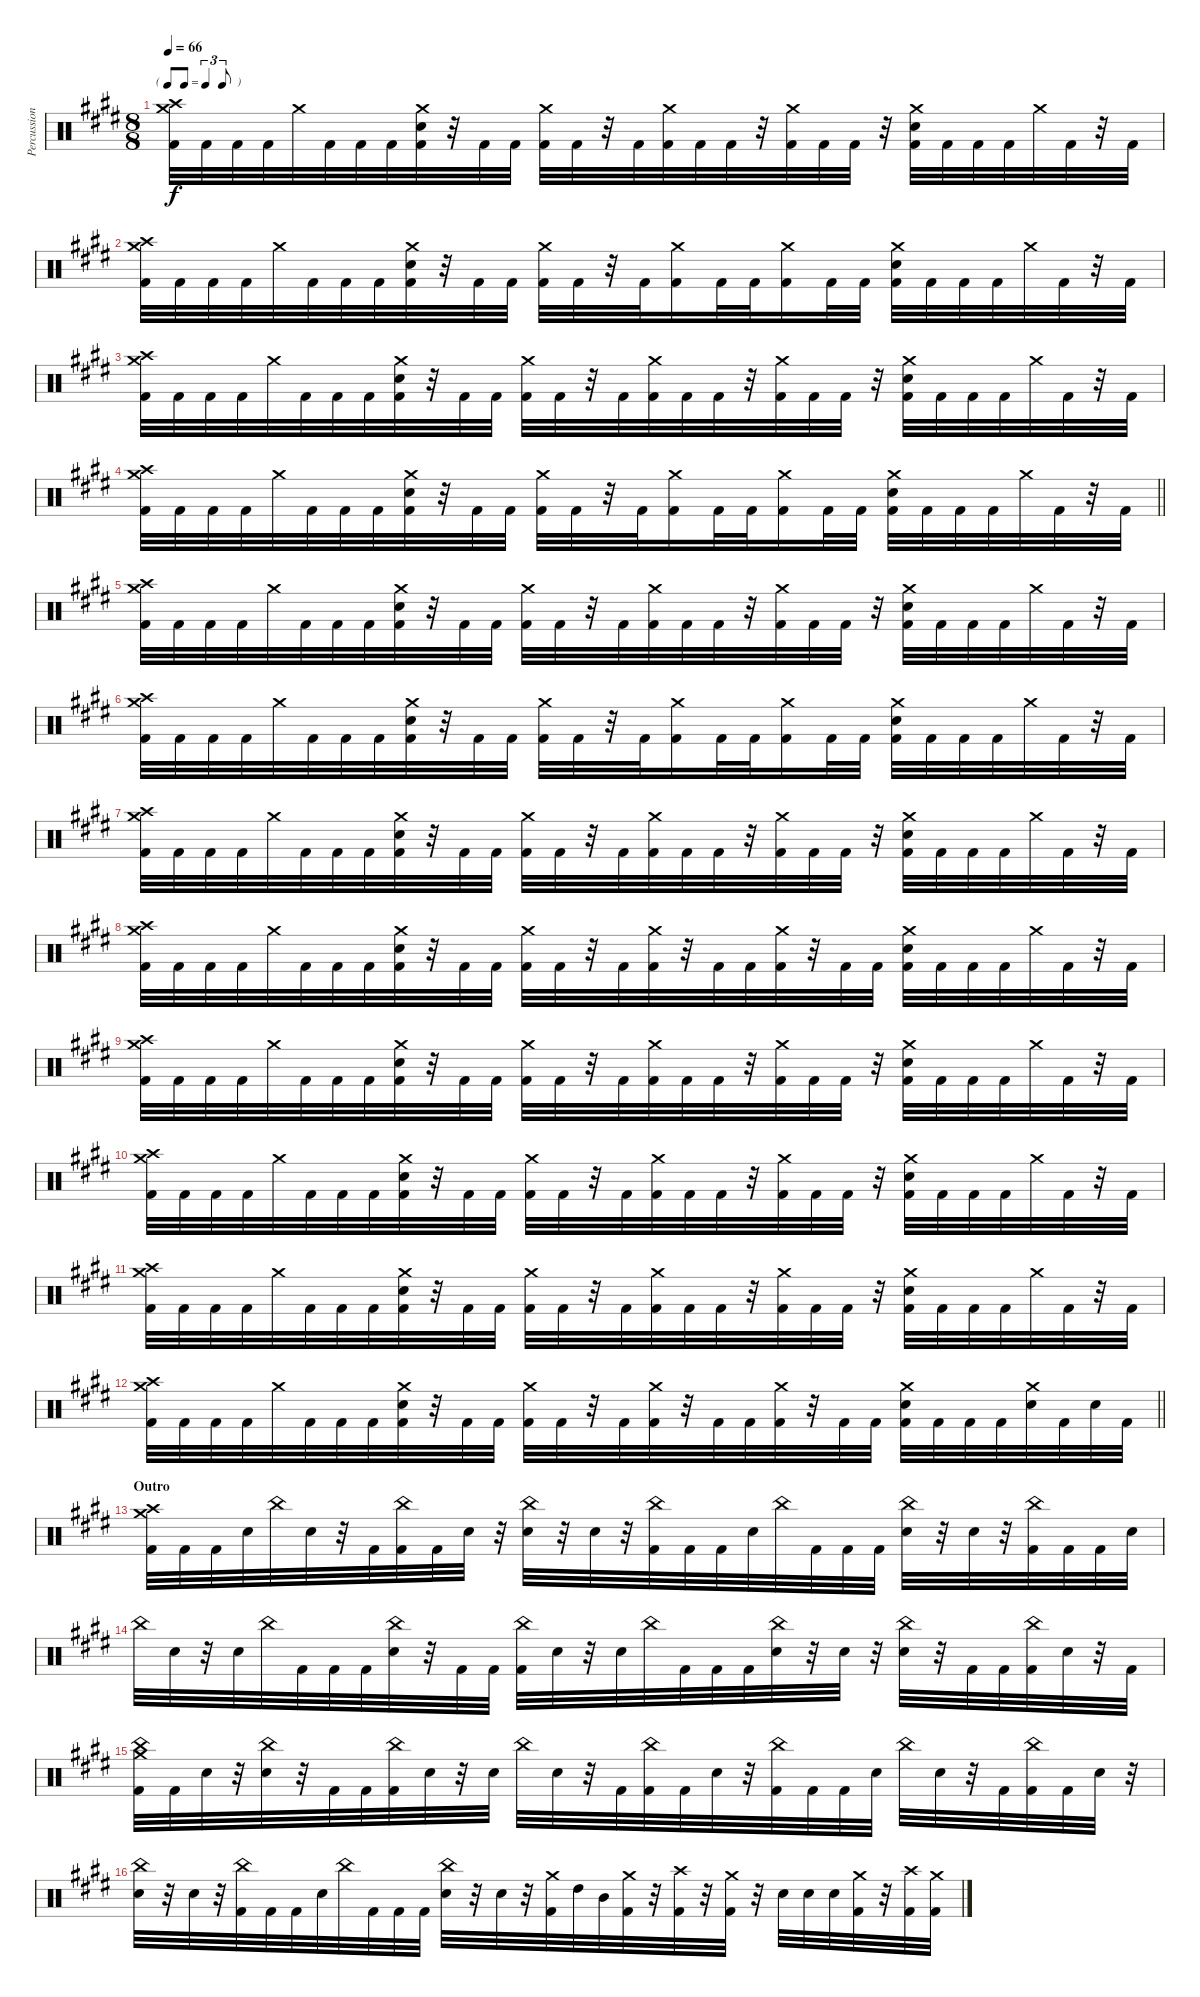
\track ("Percussion" "Percussion") {instrument percussion}
\staff {score}
\articulation defaults
\ts (8 8)
\tf triplet8th
\tempo 66
\clef neutral
\ks c#minor
("Crash medium (hit)" "Crash high (hit)" "Kick (hit) 2").32{dy f} "Kick (hit) 2".32 "Kick (hit) 2".32 "Kick (hit) 2".32 "Crash medium (hit)".32 "Kick (hit) 2".32 "Kick (hit) 2".32 "Kick (hit) 2".32 ("Crash medium (hit)" "Electric Snare (hit)" "Kick (hit) 2").32 r.32 "Kick (hit) 2".32 "Kick (hit) 2".32 ("Crash medium (hit)" "Kick (hit) 2").32 "Kick (hit) 2".32 r.32 "Kick (hit) 2".32 ("Crash medium (hit)" "Kick (hit) 2").32 "Kick (hit) 2".32 "Kick (hit) 2".32 r.32 ("Crash medium (hit)" "Kick (hit) 2").32 "Kick (hit) 2".32 "Kick (hit) 2".32 r.32 ("Crash medium (hit)" "Electric Snare (hit)" "Kick (hit) 2").32 "Kick (hit) 2".32 "Kick (hit) 2".32 "Kick (hit) 2".32 "Crash medium (hit)".32 "Kick (hit) 2".32 r.32 "Kick (hit) 2".32 |
("Crash medium (hit)" "Crash high (hit)" "Kick (hit) 2").32 "Kick (hit) 2".32 "Kick (hit) 2".32 "Kick (hit) 2".32 "Crash medium (hit)".32 "Kick (hit) 2".32 "Kick (hit) 2".32 "Kick (hit) 2".32 ("Crash medium (hit)" "Electric Snare (hit)" "Kick (hit) 2").32 r.32 "Kick (hit) 2".32 "Kick (hit) 2".32 ("Crash medium (hit)" "Kick (hit) 2").32 "Kick (hit) 2".32 r.32 "Kick (hit) 2".32 ("Crash medium (hit)" "Kick (hit) 2").16 "Kick (hit) 2".32 "Kick (hit) 2".32 ("Crash medium (hit)" "Kick (hit) 2").16 "Kick (hit) 2".32 "Kick (hit) 2".32 ("Crash medium (hit)" "Electric Snare (hit)" "Kick (hit) 2").32 "Kick (hit) 2".32 "Kick (hit) 2".32 "Kick (hit) 2".32 "Crash medium (hit)".32 "Kick (hit) 2".32 r.32 "Kick (hit) 2".32 |
("Crash medium (hit)" "Crash high (hit)" "Kick (hit) 2").32 "Kick (hit) 2".32 "Kick (hit) 2".32 "Kick (hit) 2".32 "Crash medium (hit)".32 "Kick (hit) 2".32 "Kick (hit) 2".32 "Kick (hit) 2".32 ("Crash medium (hit)" "Electric Snare (hit)" "Kick (hit) 2").32 r.32 "Kick (hit) 2".32 "Kick (hit) 2".32 ("Crash medium (hit)" "Kick (hit) 2").32 "Kick (hit) 2".32 r.32 "Kick (hit) 2".32 ("Crash medium (hit)" "Kick (hit) 2").32 "Kick (hit) 2".32 "Kick (hit) 2".32 r.32 ("Crash medium (hit)" "Kick (hit) 2").32 "Kick (hit) 2".32 "Kick (hit) 2".32 r.32 ("Crash medium (hit)" "Electric Snare (hit)" "Kick (hit) 2").32 "Kick (hit) 2".32 "Kick (hit) 2".32 "Kick (hit) 2".32 "Crash medium (hit)".32 "Kick (hit) 2".32 r.32 "Kick (hit) 2".32 |
\barLineRight lightlight
("Crash medium (hit)" "Crash high (hit)" "Kick (hit) 2").32 "Kick (hit) 2".32 "Kick (hit) 2".32 "Kick (hit) 2".32 "Crash medium (hit)".32 "Kick (hit) 2".32 "Kick (hit) 2".32 "Kick (hit) 2".32 ("Crash medium (hit)" "Electric Snare (hit)" "Kick (hit) 2").32 r.32 "Kick (hit) 2".32 "Kick (hit) 2".32 ("Crash medium (hit)" "Kick (hit) 2").32 "Kick (hit) 2".32 r.32 "Kick (hit) 2".32 ("Crash medium (hit)" "Kick (hit) 2").16 "Kick (hit) 2".32 "Kick (hit) 2".32 ("Crash medium (hit)" "Kick (hit) 2").16 "Kick (hit) 2".32 "Kick (hit) 2".32 ("Crash medium (hit)" "Electric Snare (hit)" "Kick (hit) 2").32 "Kick (hit) 2".32 "Kick (hit) 2".32 "Kick (hit) 2".32 "Crash medium (hit)".32 "Kick (hit) 2".32 r.32 "Kick (hit) 2".32 |
("Crash medium (hit)" "Crash high (hit)" "Kick (hit) 2").32 "Kick (hit) 2".32 "Kick (hit) 2".32 "Kick (hit) 2".32 "Crash medium (hit)".32 "Kick (hit) 2".32 "Kick (hit) 2".32 "Kick (hit) 2".32 ("Crash medium (hit)" "Electric Snare (hit)" "Kick (hit) 2").32 r.32 "Kick (hit) 2".32 "Kick (hit) 2".32 ("Crash medium (hit)" "Kick (hit) 2").32 "Kick (hit) 2".32 r.32 "Kick (hit) 2".32 ("Crash medium (hit)" "Kick (hit) 2").32 "Kick (hit) 2".32 "Kick (hit) 2".32 r.32 ("Crash medium (hit)" "Kick (hit) 2").32 "Kick (hit) 2".32 "Kick (hit) 2".32 r.32 ("Crash medium (hit)" "Electric Snare (hit)" "Kick (hit) 2").32 "Kick (hit) 2".32 "Kick (hit) 2".32 "Kick (hit) 2".32 "Crash medium (hit)".32 "Kick (hit) 2".32 r.32 "Kick (hit) 2".32 |
("Crash medium (hit)" "Crash high (hit)" "Kick (hit) 2").32 "Kick (hit) 2".32 "Kick (hit) 2".32 "Kick (hit) 2".32 "Crash medium (hit)".32 "Kick (hit) 2".32 "Kick (hit) 2".32 "Kick (hit) 2".32 ("Crash medium (hit)" "Electric Snare (hit)" "Kick (hit) 2").32 r.32 "Kick (hit) 2".32 "Kick (hit) 2".32 ("Crash medium (hit)" "Kick (hit) 2").32 "Kick (hit) 2".32 r.32 "Kick (hit) 2".32 ("Crash medium (hit)" "Kick (hit) 2").16 "Kick (hit) 2".32 "Kick (hit) 2".32 ("Crash medium (hit)" "Kick (hit) 2").16 "Kick (hit) 2".32 "Kick (hit) 2".32 ("Crash medium (hit)" "Electric Snare (hit)" "Kick (hit) 2").32 "Kick (hit) 2".32 "Kick (hit) 2".32 "Kick (hit) 2".32 "Crash medium (hit)".32 "Kick (hit) 2".32 r.32 "Kick (hit) 2".32 |
("Crash medium (hit)" "Crash high (hit)" "Kick (hit) 2").32 "Kick (hit) 2".32 "Kick (hit) 2".32 "Kick (hit) 2".32 "Crash medium (hit)".32 "Kick (hit) 2".32 "Kick (hit) 2".32 "Kick (hit) 2".32 ("Crash medium (hit)" "Electric Snare (hit)" "Kick (hit) 2").32 r.32 "Kick (hit) 2".32 "Kick (hit) 2".32 ("Crash medium (hit)" "Kick (hit) 2").32 "Kick (hit) 2".32 r.32 "Kick (hit) 2".32 ("Crash medium (hit)" "Kick (hit) 2").32 "Kick (hit) 2".32 "Kick (hit) 2".32 r.32 ("Crash medium (hit)" "Kick (hit) 2").32 "Kick (hit) 2".32 "Kick (hit) 2".32 r.32 ("Crash medium (hit)" "Electric Snare (hit)" "Kick (hit) 2").32 "Kick (hit) 2".32 "Kick (hit) 2".32 "Kick (hit) 2".32 "Crash medium (hit)".32 "Kick (hit) 2".32 r.32 "Kick (hit) 2".32 |
("Crash medium (hit)" "Crash high (hit)" "Kick (hit) 2").32 "Kick (hit) 2".32 "Kick (hit) 2".32 "Kick (hit) 2".32 "Crash medium (hit)".32 "Kick (hit) 2".32 "Kick (hit) 2".32 "Kick (hit) 2".32 ("Crash medium (hit)" "Electric Snare (hit)" "Kick (hit) 2").32 r.32 "Kick (hit) 2".32 "Kick (hit) 2".32 ("Crash medium (hit)" "Kick (hit) 2").32 "Kick (hit) 2".32 r.32 "Kick (hit) 2".32 ("Crash medium (hit)" "Kick (hit) 2").32 r.32 "Kick (hit) 2".32 "Kick (hit) 2".32 ("Crash medium (hit)" "Kick (hit) 2").32 r.32 "Kick (hit) 2".32 "Kick (hit) 2".32 ("Crash medium (hit)" "Electric Snare (hit)" "Kick (hit) 2").32 "Kick (hit) 2".32 "Kick (hit) 2".32 "Kick (hit) 2".32 "Crash medium (hit)".32 "Kick (hit) 2".32 r.32 "Kick (hit) 2".32 |
("Crash medium (hit)" "Crash high (hit)" "Kick (hit) 2").32 "Kick (hit) 2".32 "Kick (hit) 2".32 "Kick (hit) 2".32 "Crash medium (hit)".32 "Kick (hit) 2".32 "Kick (hit) 2".32 "Kick (hit) 2".32 ("Crash medium (hit)" "Electric Snare (hit)" "Kick (hit) 2").32 r.32 "Kick (hit) 2".32 "Kick (hit) 2".32 ("Crash medium (hit)" "Kick (hit) 2").32 "Kick (hit) 2".32 r.32 "Kick (hit) 2".32 ("Crash medium (hit)" "Kick (hit) 2").32 "Kick (hit) 2".32 "Kick (hit) 2".32 r.32 ("Crash medium (hit)" "Kick (hit) 2").32 "Kick (hit) 2".32 "Kick (hit) 2".32 r.32 ("Crash medium (hit)" "Electric Snare (hit)" "Kick (hit) 2").32 "Kick (hit) 2".32 "Kick (hit) 2".32 "Kick (hit) 2".32 "Crash medium (hit)".32 "Kick (hit) 2".32 r.32 "Kick (hit) 2".32 |
("Crash medium (hit)" "Crash high (hit)" "Kick (hit) 2").32 "Kick (hit) 2".32 "Kick (hit) 2".32 "Kick (hit) 2".32 "Crash medium (hit)".32 "Kick (hit) 2".32 "Kick (hit) 2".32 "Kick (hit) 2".32 ("Crash medium (hit)" "Electric Snare (hit)" "Kick (hit) 2").32 r.32 "Kick (hit) 2".32 "Kick (hit) 2".32 ("Crash medium (hit)" "Kick (hit) 2").32 "Kick (hit) 2".32 r.32 "Kick (hit) 2".32 ("Crash medium (hit)" "Kick (hit) 2").32 "Kick (hit) 2".32 "Kick (hit) 2".32 r.32 ("Crash medium (hit)" "Kick (hit) 2").32 "Kick (hit) 2".32 "Kick (hit) 2".32 r.32 ("Crash medium (hit)" "Electric Snare (hit)" "Kick (hit) 2").32 "Kick (hit) 2".32 "Kick (hit) 2".32 "Kick (hit) 2".32 "Crash medium (hit)".32 "Kick (hit) 2".32 r.32 "Kick (hit) 2".32 |
("Crash medium (hit)" "Crash high (hit)" "Kick (hit) 2").32 "Kick (hit) 2".32 "Kick (hit) 2".32 "Kick (hit) 2".32 "Crash medium (hit)".32 "Kick (hit) 2".32 "Kick (hit) 2".32 "Kick (hit) 2".32 ("Crash medium (hit)" "Electric Snare (hit)" "Kick (hit) 2").32 r.32 "Kick (hit) 2".32 "Kick (hit) 2".32 ("Crash medium (hit)" "Kick (hit) 2").32 "Kick (hit) 2".32 r.32 "Kick (hit) 2".32 ("Crash medium (hit)" "Kick (hit) 2").32 "Kick (hit) 2".32 "Kick (hit) 2".32 r.32 ("Crash medium (hit)" "Kick (hit) 2").32 "Kick (hit) 2".32 "Kick (hit) 2".32 r.32 ("Crash medium (hit)" "Electric Snare (hit)" "Kick (hit) 2").32 "Kick (hit) 2".32 "Kick (hit) 2".32 "Kick (hit) 2".32 "Crash medium (hit)".32 "Kick (hit) 2".32 r.32 "Kick (hit) 2".32 |
\barLineRight lightlight
("Crash medium (hit)" "Crash high (hit)" "Kick (hit) 2").32 "Kick (hit) 2".32 "Kick (hit) 2".32 "Kick (hit) 2".32 "Crash medium (hit)".32 "Kick (hit) 2".32 "Kick (hit) 2".32 "Kick (hit) 2".32 ("Crash medium (hit)" "Electric Snare (hit)" "Kick (hit) 2").32 r.32 "Kick (hit) 2".32 "Kick (hit) 2".32 ("Crash medium (hit)" "Kick (hit) 2").32 "Kick (hit) 2".32 r.32 "Kick (hit) 2".32 ("Crash medium (hit)" "Kick (hit) 2").32 r.32 "Kick (hit) 2".32 "Kick (hit) 2".32 ("Crash medium (hit)" "Kick (hit) 2").32 r.32 "Kick (hit) 2".32 "Kick (hit) 2".32 ("Crash medium (hit)" "Electric Snare (hit)" "Kick (hit) 2").32 "Kick (hit) 2".32 "Kick (hit) 2".32 "Kick (hit) 2".32 ("Crash medium (hit)" "Electric Snare (hit)").32 "Kick (hit) 2".32 "Electric Snare (hit)".32 "Kick (hit) 2".32 |
\section ("" "Outro")
("Crash medium (hit)" "Crash high (hit)" "Kick (hit) 2").32 "Kick (hit) 2".32 "Kick (hit) 2".32 "Electric Snare (hit)".32 "China (hit)".32 "Electric Snare (hit)".32 r.32 "Kick (hit) 2".32 ("China (hit)" "Kick (hit) 2").32 "Kick (hit) 2".32 "Electric Snare (hit)".32 r.32 ("China (hit)" "Electric Snare (hit)").32 r.32 "Electric Snare (hit)".32 r.32 ("China (hit)" "Kick (hit) 2").32 "Kick (hit) 2".32 "Kick (hit) 2".32 "Electric Snare (hit)".32 "China (hit)".32 "Kick (hit) 2".32 "Kick (hit) 2".32 "Kick (hit) 2".32 ("China (hit)" "Electric Snare (hit)").32 r.32 "Electric Snare (hit)".32 r.32 ("China (hit)" "Kick (hit) 2").32 "Kick (hit) 2".32 "Kick (hit) 2".32 "Electric Snare (hit)".32 |
"China (hit)".32 "Electric Snare (hit)".32 r.32 "Electric Snare (hit)".32 "China (hit)".32 "Kick (hit) 2".32 "Kick (hit) 2".32 "Kick (hit) 2".32 ("China (hit)" "Electric Snare (hit)").32 r.32 "Kick (hit) 2".32 "Kick (hit) 2".32 ("China (hit)" "Kick (hit) 2").32 "Electric Snare (hit)".32 r.32 "Electric Snare (hit)".32 "China (hit)".32 "Kick (hit) 2".32 "Kick (hit) 2".32 "Kick (hit) 2".32 ("China (hit)" "Electric Snare (hit)").32 r.32 "Electric Snare (hit)".32 r.32 ("China (hit)" "Electric Snare (hit)").32 r.32 "Kick (hit) 2".32 "Kick (hit) 2".32 ("China (hit)" "Kick (hit) 2").32 "Electric Snare (hit)".32 r.32 "Kick (hit) 2".32 |
("China (hit)" "Crash medium (hit)" "Kick (hit) 2").32 "Kick (hit) 2".32 "Electric Snare (hit)".32 r.32 ("China (hit)" "Electric Snare (hit)").32 r.32 "Kick (hit) 2".32 "Kick (hit) 2".32 ("China (hit)" "Kick (hit) 2").32 "Electric Snare (hit)".32 r.32 "Electric Snare (hit)".32 "China (hit)".32 "Electric Snare (hit)".32 r.32 "Kick (hit) 2".32 ("China (hit)" "Kick (hit) 2").32 "Kick (hit) 2".32 "Electric Snare (hit)".32 r.32 ("China (hit)" "Kick (hit) 2").32 "Kick (hit) 2".32 "Kick (hit) 2".32 "Electric Snare (hit)".32 "China (hit)".32 "Electric Snare (hit)".32 r.32 "Kick (hit) 2".32 ("China (hit)" "Kick (hit) 2").32 "Kick (hit) 2".32 "Electric Snare (hit)".32 r.32 |
("China (hit)" "Electric Snare (hit)").32 r.32 "Electric Snare (hit)".32 r.32 ("China (hit)" "Kick (hit) 2").32 "Kick (hit) 2".32 "Kick (hit) 2".32 "Electric Snare (hit)".32 "China (hit)".32 "Kick (hit) 2".32 "Kick (hit) 2".32 "Kick (hit) 2".32 ("China (hit)" "Electric Snare (hit)").32 r.32 "Electric Snare (hit)".32 r.32 ("Crash medium (hit)" "Kick (hit) 2").32 "High Tom (hit)".32 "Mid Tom (hit)".32 ("Crash medium (hit)" "Kick (hit) 2").32 r.32 ("Crash high (hit)" "Kick (hit) 2").32 r.32 ("Crash medium (hit)" "Kick (hit) 2").32 r.32 "Electric Snare (hit)".32 "Electric Snare (hit)".32 "Electric Snare (hit)".32 ("Crash medium (hit)" "Kick (hit) 2").32 r.32 ("Crash high (hit)" "Kick (hit) 2").32 ("Crash medium (hit)" "Kick (hit) 2").32
